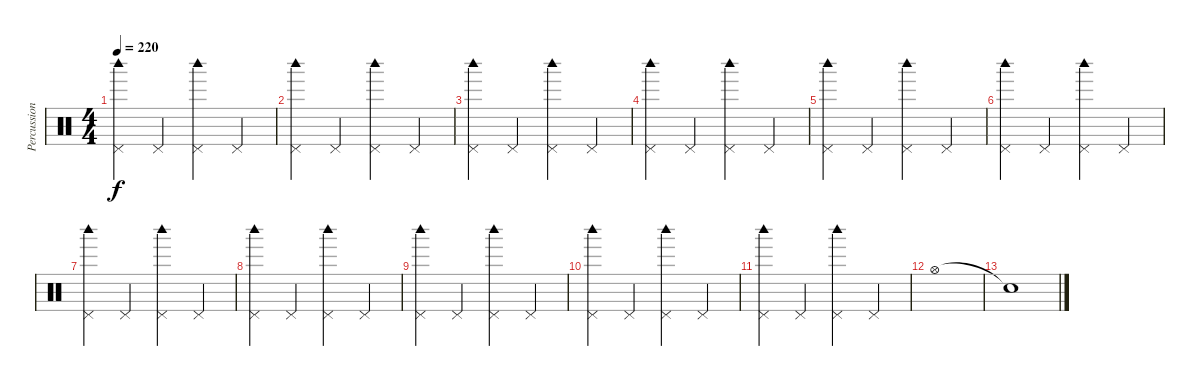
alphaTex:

\track ("Percussion" "Percussion") {instrument percussion}
\staff {score}
\articulation defaults
\ts (4 4)
\tempo 220
\clef neutral
\ks c
("Pedal Hi-Hat (hit)" "Woodblock high (hit)").4{dy f} "Pedal Hi-Hat (hit)".4 ("Pedal Hi-Hat (hit)" "Woodblock high (hit)").4 "Pedal Hi-Hat (hit)".4 |
("Pedal Hi-Hat (hit)" "Woodblock high (hit)").4 "Pedal Hi-Hat (hit)".4 ("Pedal Hi-Hat (hit)" "Woodblock high (hit)").4 "Pedal Hi-Hat (hit)".4 |
("Pedal Hi-Hat (hit)" "Woodblock high (hit)").4 "Pedal Hi-Hat (hit)".4 ("Pedal Hi-Hat (hit)" "Woodblock high (hit)").4 "Pedal Hi-Hat (hit)".4 |
("Pedal Hi-Hat (hit)" "Woodblock high (hit)").4 "Pedal Hi-Hat (hit)".4 ("Pedal Hi-Hat (hit)" "Woodblock high (hit)").4 "Pedal Hi-Hat (hit)".4 |
("Pedal Hi-Hat (hit)" "Woodblock high (hit)").4 "Pedal Hi-Hat (hit)".4 ("Pedal Hi-Hat (hit)" "Woodblock high (hit)").4 "Pedal Hi-Hat (hit)".4 |
("Pedal Hi-Hat (hit)" "Woodblock high (hit)").4 "Pedal Hi-Hat (hit)".4 ("Pedal Hi-Hat (hit)" "Woodblock high (hit)").4 "Pedal Hi-Hat (hit)".4 |
("Pedal Hi-Hat (hit)" "Woodblock high (hit)").4 "Pedal Hi-Hat (hit)".4 ("Pedal Hi-Hat (hit)" "Woodblock high (hit)").4 "Pedal Hi-Hat (hit)".4 |
("Pedal Hi-Hat (hit)" "Woodblock high (hit)").4 "Pedal Hi-Hat (hit)".4 ("Pedal Hi-Hat (hit)" "Woodblock high (hit)").4 "Pedal Hi-Hat (hit)".4 |
("Pedal Hi-Hat (hit)" "Woodblock high (hit)").4 "Pedal Hi-Hat (hit)".4 ("Pedal Hi-Hat (hit)" "Woodblock high (hit)").4 "Pedal Hi-Hat (hit)".4 |
("Pedal Hi-Hat (hit)" "Woodblock high (hit)").4 "Pedal Hi-Hat (hit)".4 ("Pedal Hi-Hat (hit)" "Woodblock high (hit)").4 "Pedal Hi-Hat (hit)".4 |
("Pedal Hi-Hat (hit)" "Woodblock high (hit)").4 "Pedal Hi-Hat (hit)".4 ("Pedal Hi-Hat (hit)" "Woodblock high (hit)").4 "Pedal Hi-Hat (hit)".4 |
"Hi-Hat (open)".1 |
"Snare (hit)"{t}.1
